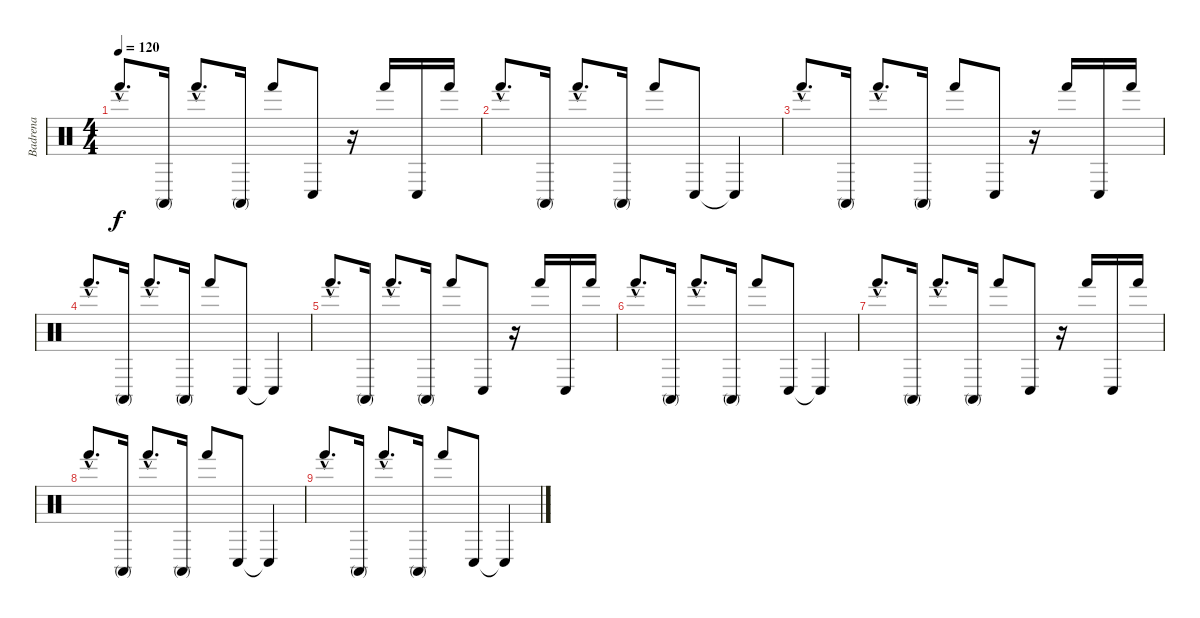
\track ("Badrena" "Badrena") {instrument percussion}
\staff {score}
\articulation defaults
\ts (4 4)
\tempo 120
\clef neutral
\ks c "Hand (hit)"{hac}.8{d dy f} "Conga high (mute)".16 "Hand (hit)"{hac}.8{d} "Conga high (mute)".16 "Hand (hit)".8 "Conga low (hit)".8
r.16 "Hand (hit)".16 "Conga low (hit)".16 "Hand (hit)".16 |
"Hand (hit)"{hac}.8{d} "Conga high (mute)".16 "Hand (hit)"{hac}.8{d} "Conga high (mute)".16 "Hand (hit)".8 "Conga low (hit)".8 "Conga low (hit)"{t}.4 |
"Hand (hit)"{hac}.8{d} "Conga high (mute)".16 "Hand (hit)"{hac}.8{d} "Conga high (mute)".16 "Hand (hit)".8 "Conga low (hit)".8 r.16 "Hand (hit)".16 "Conga low (hit)".16 "Hand (hit)".16 |
"Hand (hit)"{hac}.8{d} "Conga high (mute)".16 "Hand (hit)"{hac}.8{d} "Conga high (mute)".16 "Hand (hit)".8 "Conga low (hit)".8 "Conga low (hit)"{t}.4 |
"Hand (hit)"{hac}.8{d} "Conga high (mute)".16 "Hand (hit)"{hac}.8{d} "Conga high (mute)".16 "Hand (hit)".8 "Conga low (hit)".8 r.16 "Hand (hit)".16 "Conga low (hit)".16 "Hand (hit)".16 |
"Hand (hit)"{hac}.8{d} "Conga high (mute)".16 "Hand (hit)"{hac}.8{d} "Conga high (mute)".16 "Hand (hit)".8 "Conga low (hit)".8 "Conga low (hit)"{t}.4 |
"Hand (hit)"{hac}.8{d} "Conga high (mute)".16 "Hand (hit)"{hac}.8{d} "Conga high (mute)".16 "Hand (hit)".8 "Conga low (hit)".8 r.16 "Hand (hit)".16 "Conga low (hit)".16 "Hand (hit)".16 |
"Hand (hit)"{hac}.8{d} "Conga high (mute)".16 "Hand (hit)"{hac}.8{d} "Conga high (mute)".16 "Hand (hit)".8 "Conga low (hit)".8 "Conga low (hit)"{t}.4 |
"Hand (hit)"{hac}.8{d} "Conga high (mute)".16 "Hand (hit)"{hac}.8{d} "Conga high (mute)".16 "Hand (hit)".8 "Conga low (hit)".8 "Conga low (hit)"{t}.4
